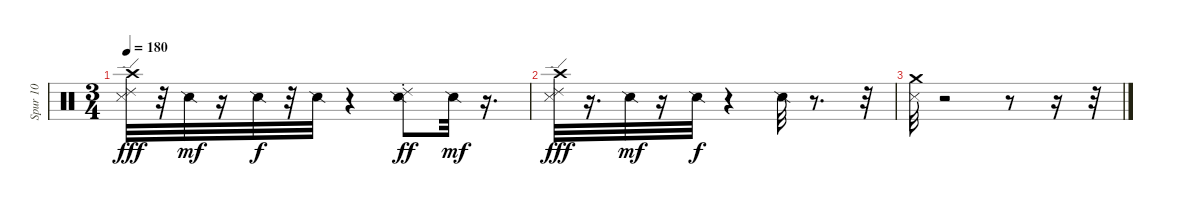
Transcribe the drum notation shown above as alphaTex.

\track ("Spur 10" "Spur 10") {instrument percussion}
\staff {score}
\articulation defaults
\ts (3 4)
\tempo 180
\clef neutral
\ks c
("Metronome (hit)" "Crash high (hit)" "Ride (edge) 2").32{dy fff} r.32 "Snare (side stick) 2".32{dy mf} r.16 "Snare (side stick) 2".32{dy f} r.32 "Snare (side stick) 2".32 r.4 ("Snare (side stick) 2" "Ride (choke) 2").8{dy ff} "Snare (side stick) 2".32{dy mf} r.16{d} |
("Metronome (hit)" "Crash high (hit)" "Ride (edge) 2").32{dy fff} r.16{d} "Snare (side stick) 2".32{dy mf} r.16 "Snare (side stick) 2".32{dy f} r.4 "Snare (side stick) 2".32 r.8{d} r.32 |
("Metronome (hit)" "Crash medium (hit)").32 r.2 r.8 r.16 r.32
